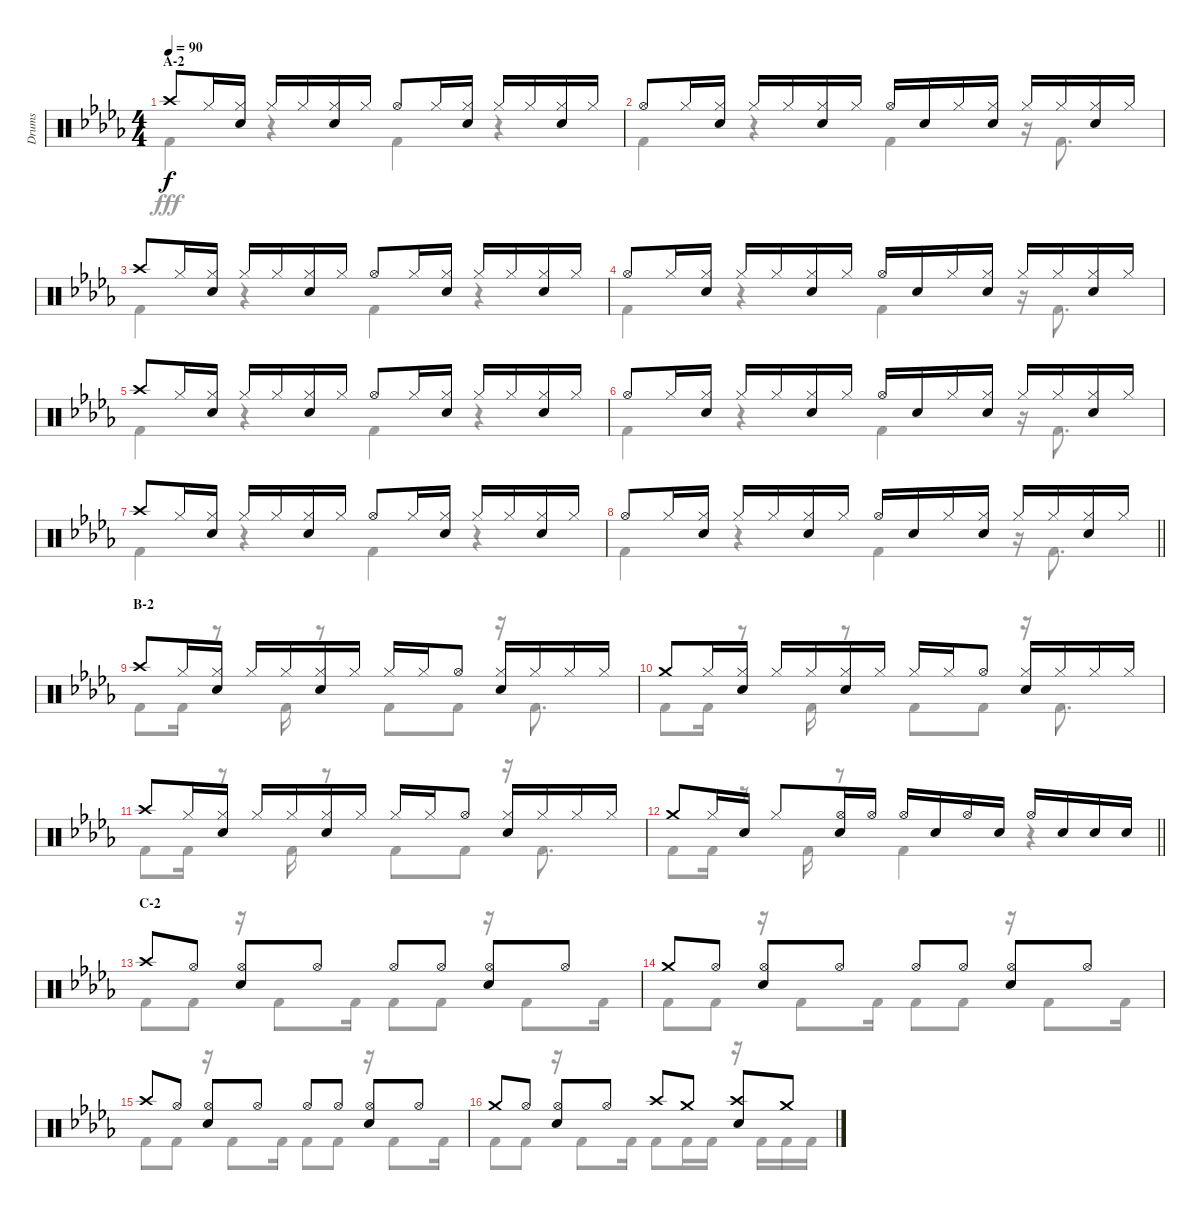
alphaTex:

\track ("Drums" "Drums") {instrument percussion}
\staff {score}
\articulation defaults
\voice
\ts (4 4)
\section ("" "A-2")
\tempo 90
\clef neutral
\ks db "Crash high (hit)".8{dy f} "Hi-Hat (closed)".16
("Hi-Hat (closed)" "Snare (hit) 2").16 "Hi-Hat (closed)".16 "Hi-Hat (closed)".16 ("Hi-Hat (closed)" "Snare (hit) 2").16 "Hi-Hat (closed)".16 "Hi-Hat (open)".8 "Hi-Hat (closed)".16 ("Hi-Hat (closed)" "Snare (hit) 2").16 "Hi-Hat (closed)".16 "Hi-Hat (closed)".16 ("Hi-Hat (closed)" "Snare (hit) 2").16 "Hi-Hat (closed)".16 |
"Hi-Hat (open)".8 "Hi-Hat (closed)".16 ("Hi-Hat (closed)" "Snare (hit) 2").16 "Hi-Hat (closed)".16 "Hi-Hat (closed)".16 ("Hi-Hat (closed)" "Snare (hit) 2").16 "Hi-Hat (closed)".16 "Hi-Hat (open)".16 "Snare (hit) 2".16 "Hi-Hat (closed)".16 ("Hi-Hat (closed)" "Snare (hit) 2").16 "Hi-Hat (closed)".16 "Hi-Hat (closed)".16 ("Hi-Hat (closed)" "Snare (hit) 2").16 "Hi-Hat (closed)".16 |
"Crash high (hit)".8 "Hi-Hat (closed)".16 ("Hi-Hat (closed)" "Snare (hit) 2").16 "Hi-Hat (closed)".16 "Hi-Hat (closed)".16 ("Hi-Hat (closed)" "Snare (hit) 2").16 "Hi-Hat (closed)".16 "Hi-Hat (open)".8 "Hi-Hat (closed)".16 ("Hi-Hat (closed)" "Snare (hit) 2").16 "Hi-Hat (closed)".16 "Hi-Hat (closed)".16 ("Hi-Hat (closed)" "Snare (hit) 2").16 "Hi-Hat (closed)".16 |
"Hi-Hat (open)".8 "Hi-Hat (closed)".16 ("Hi-Hat (closed)" "Snare (hit) 2").16 "Hi-Hat (closed)".16 "Hi-Hat (closed)".16 ("Hi-Hat (closed)" "Snare (hit) 2").16 "Hi-Hat (closed)".16 "Hi-Hat (open)".16 "Snare (hit) 2".16 "Hi-Hat (closed)".16 ("Hi-Hat (closed)" "Snare (hit) 2").16 "Hi-Hat (closed)".16 "Hi-Hat (closed)".16 ("Hi-Hat (closed)" "Snare (hit) 2").16 "Hi-Hat (closed)".16 |
"Crash high (hit)".8 "Hi-Hat (closed)".16 ("Hi-Hat (closed)" "Snare (hit) 2").16 "Hi-Hat (closed)".16 "Hi-Hat (closed)".16 ("Hi-Hat (closed)" "Snare (hit) 2").16 "Hi-Hat (closed)".16 "Hi-Hat (open)".8 "Hi-Hat (closed)".16 ("Hi-Hat (closed)" "Snare (hit) 2").16 "Hi-Hat (closed)".16 "Hi-Hat (closed)".16 ("Hi-Hat (closed)" "Snare (hit) 2").16 "Hi-Hat (closed)".16 |
"Hi-Hat (open)".8 "Hi-Hat (closed)".16 ("Hi-Hat (closed)" "Snare (hit) 2").16 "Hi-Hat (closed)".16 "Hi-Hat (closed)".16 ("Hi-Hat (closed)" "Snare (hit) 2").16 "Hi-Hat (closed)".16 "Hi-Hat (open)".16 "Snare (hit) 2".16 "Hi-Hat (closed)".16 ("Hi-Hat (closed)" "Snare (hit) 2").16 "Hi-Hat (closed)".16 "Hi-Hat (closed)".16 ("Hi-Hat (closed)" "Snare (hit) 2").16 "Hi-Hat (closed)".16 |
"Crash high (hit)".8 "Hi-Hat (closed)".16 ("Hi-Hat (closed)" "Snare (hit) 2").16 "Hi-Hat (closed)".16 "Hi-Hat (closed)".16 ("Hi-Hat (closed)" "Snare (hit) 2").16 "Hi-Hat (closed)".16 "Hi-Hat (open)".8 "Hi-Hat (closed)".16 ("Hi-Hat (closed)" "Snare (hit) 2").16 "Hi-Hat (closed)".16 "Hi-Hat (closed)".16 ("Hi-Hat (closed)" "Snare (hit) 2").16 "Hi-Hat (closed)".16 |
\barLineRight lightlight "Hi-Hat (open)".8 "Hi-Hat (closed)".16
("Hi-Hat (closed)" "Snare (hit) 2").16 "Hi-Hat (closed)".16 "Hi-Hat (closed)".16 ("Hi-Hat (closed)" "Snare (hit) 2").16 "Hi-Hat (closed)".16 "Hi-Hat (open)".16 "Snare (hit) 2".16 "Hi-Hat (closed)".16 ("Hi-Hat (closed)" "Snare (hit) 2").16 "Hi-Hat (closed)".16 "Hi-Hat (closed)".16 ("Hi-Hat (closed)" "Snare (hit) 2").16 "Hi-Hat (closed)".16 |
\section ("" "B-2")
"Crash high (hit)".8 "Hi-Hat (closed)".16 ("Hi-Hat (closed)" "Snare (hit) 2").16 "Hi-Hat (closed)".16 "Hi-Hat (closed)".16 ("Hi-Hat (closed)" "Snare (hit) 2").16 "Hi-Hat (closed)".16 "Hi-Hat (closed)".16 "Hi-Hat (closed)".16 "Hi-Hat (open)".8 ("Hi-Hat (closed)" "Snare (hit) 2").16 "Hi-Hat (closed)".16 "Hi-Hat (closed)".16 "Hi-Hat (closed)".16 |
"Crash medium (hit)".8 "Hi-Hat (closed)".16 ("Hi-Hat (closed)" "Snare (hit) 2").16 "Hi-Hat (closed)".16 "Hi-Hat (closed)".16 ("Hi-Hat (closed)" "Snare (hit) 2").16 "Hi-Hat (closed)".16 "Hi-Hat (closed)".16 "Hi-Hat (closed)".16 "Hi-Hat (open)".8 ("Hi-Hat (closed)" "Snare (hit) 2").16 "Hi-Hat (closed)".16 "Hi-Hat (closed)".16 "Hi-Hat (closed)".16 |
"Crash high (hit)".8 "Hi-Hat (closed)".16 ("Hi-Hat (closed)" "Snare (hit) 2").16 "Hi-Hat (closed)".16 "Hi-Hat (closed)".16 ("Hi-Hat (closed)" "Snare (hit) 2").16 "Hi-Hat (closed)".16 "Hi-Hat (closed)".16 "Hi-Hat (closed)".16 "Hi-Hat (open)".8 ("Hi-Hat (closed)" "Snare (hit) 2").16 "Hi-Hat (closed)".16 "Hi-Hat (closed)".16 "Hi-Hat (closed)".16 |
\barLineRight lightlight "Crash medium (hit)".8 "Hi-Hat (closed)".16 "Snare (hit) 2".16 "Hi-Hat (closed)".8
("Hi-Hat (open)" "Snare (hit) 2").16 "Hi-Hat (open)".16 "Hi-Hat (open)".16 "Snare (hit) 2".16 "Hi-Hat (open)".16 "Snare (hit) 2".16 "Hi-Hat (open)".16 "Snare (hit) 2".16 "Snare (hit) 2".16 "Snare (hit) 2".16 |
\section ("" "C-2")
"Crash high (hit)".8 "Hi-Hat (open)".8 ("Hi-Hat (open)" "Snare (hit) 2").8 "Hi-Hat (open)".8 "Hi-Hat (open)".8 "Hi-Hat (open)".8 ("Hi-Hat (open)" "Snare (hit) 2").8 "Hi-Hat (open)".8 |
"Crash medium (hit)".8 "Hi-Hat (open)".8 ("Hi-Hat (open)" "Snare (hit) 2").8 "Hi-Hat (open)".8 "Hi-Hat (open)".8 "Hi-Hat (open)".8 ("Hi-Hat (open)" "Snare (hit) 2").8 "Hi-Hat (open)".8 |
"Crash high (hit)".8 "Hi-Hat (open)".8 ("Hi-Hat (open)" "Snare (hit) 2").8 "Hi-Hat (open)".8 "Hi-Hat (open)".8 "Hi-Hat (open)".8 ("Hi-Hat (open)" "Snare (hit) 2").8 "Hi-Hat (open)".8 |
"Crash medium (hit)".8 "Hi-Hat (open)".8 ("Hi-Hat (open)" "Snare (hit) 2").8 "Hi-Hat (open)".8 "Crash high (hit)".8 "Crash medium (hit)".8 ("Crash high (hit)" "Snare (hit) 2").8 "Crash medium (hit)".8
\voice
\clef neutral
\ottava regular
\simile none
\ks db "Kick (hit) 2".4{dy fff}
r.4 "Kick (hit) 2".4 r.4 |
"Kick (hit) 2".4 r.4 "Kick (hit) 2".4 r.16 "Kick (hit) 2".8{d} |
"Kick (hit) 2".4 r.4 "Kick (hit) 2".4 r.4 |
"Kick (hit) 2".4 r.4 "Kick (hit) 2".4 r.16 "Kick (hit) 2".8{d} |
"Kick (hit) 2".4 r.4 "Kick (hit) 2".4 r.4 |
"Kick (hit) 2".4 r.4 "Kick (hit) 2".4 r.16 "Kick (hit) 2".8{d} |
"Kick (hit) 2".4 r.4 "Kick (hit) 2".4 r.4 |
\barLineRight lightlight "Kick (hit) 2".4
r.4 "Kick (hit) 2".4 r.16 "Kick (hit) 2".8{d} |
"Kick (hit) 2".8 "Kick (hit) 2".16 r.8 "Kick (hit) 2".16 r.8 "Kick (hit) 2".8 "Kick (hit) 2".8 r.16 "Kick (hit) 2".8{d} |
"Kick (hit) 2".8 "Kick (hit) 2".16 r.8 "Kick (hit) 2".16 r.8 "Kick (hit) 2".8 "Kick (hit) 2".8 r.16 "Kick (hit) 2".8{d} |
"Kick (hit) 2".8 "Kick (hit) 2".16 r.8 "Kick (hit) 2".16 r.8 "Kick (hit) 2".8 "Kick (hit) 2".8 r.16 "Kick (hit) 2".8{d} |
\barLineRight lightlight "Kick (hit) 2".8 "Kick (hit) 2".16
r.8 "Kick (hit) 2".16 r.8 "Kick (hit) 2".4 r.4 |
"Kick (hit) 2".8 "Kick (hit) 2".8 r.16 "Kick (hit) 2".8 "Kick (hit) 2".16 "Kick (hit) 2".8 "Kick (hit) 2".8 r.16 "Kick (hit) 2".8 "Kick (hit) 2".16 |
"Kick (hit) 2".8 "Kick (hit) 2".8 r.16 "Kick (hit) 2".8 "Kick (hit) 2".16 "Kick (hit) 2".8 "Kick (hit) 2".8 r.16 "Kick (hit) 2".8 "Kick (hit) 2".16 |
"Kick (hit) 2".8 "Kick (hit) 2".8 r.16 "Kick (hit) 2".8 "Kick (hit) 2".16 "Kick (hit) 2".8 "Kick (hit) 2".8 r.16 "Kick (hit) 2".8 "Kick (hit) 2".16 |
"Kick (hit) 2".8 "Kick (hit) 2".8 r.16 "Kick (hit) 2".8 "Kick (hit) 2".16 "Kick (hit) 2".8 "Kick (hit) 2".16 "Kick (hit) 2".16 r.16 "Kick (hit) 2".16 "Kick (hit) 2".16 "Kick (hit) 2".16
